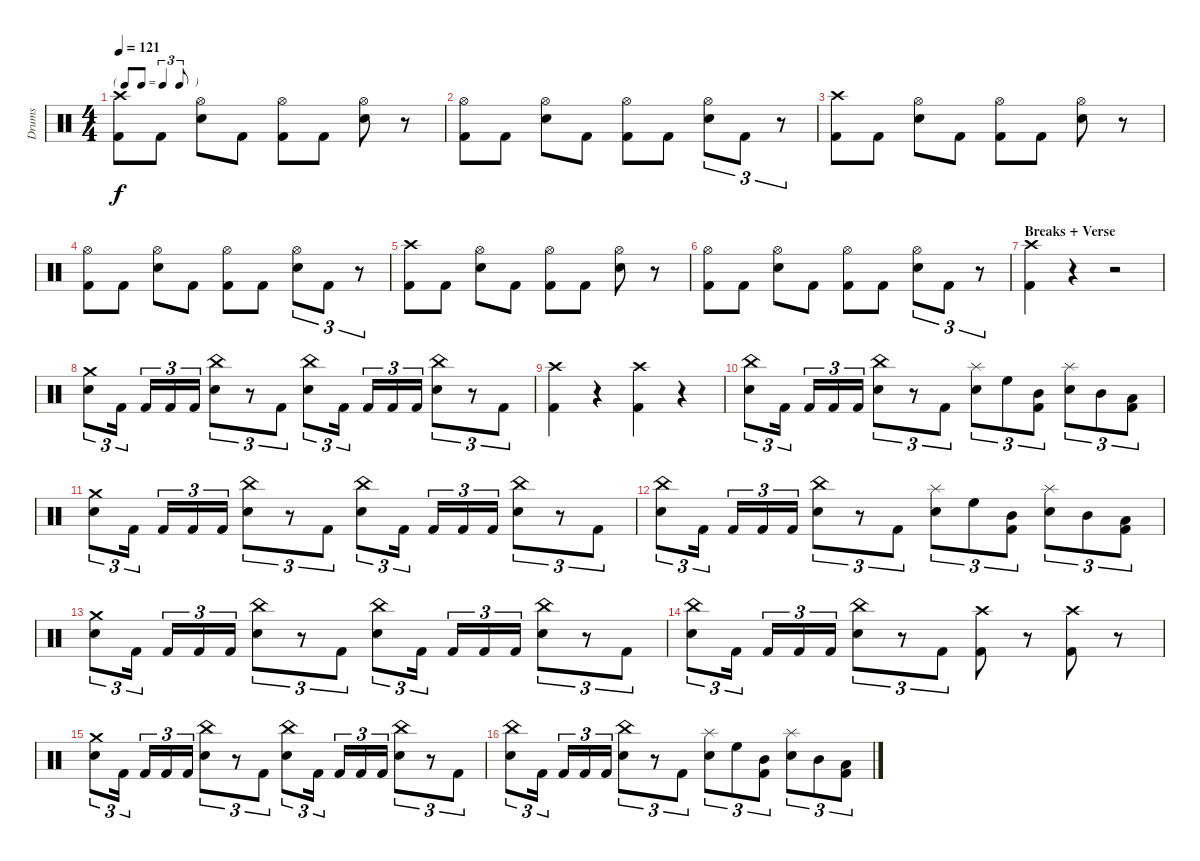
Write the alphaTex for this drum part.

\track ("Drums" "Drums") {instrument percussion}
\staff {score}
\articulation defaults
\ts (4 4)
\tf triplet8th
\tempo 121
\clef neutral
\ks c
("Crash high (hit)" "Kick (hit) 2").8{dy f} "Kick (hit) 2".8 ("Hi-Hat (open)" "Electric Snare (hit)").8 "Kick (hit) 2".8 ("Hi-Hat (open)" "Kick (hit) 2").8 "Kick (hit) 2".8 ("Hi-Hat (open)" "Electric Snare (hit)").8 r.8 |
("Hi-Hat (open)" "Kick (hit) 2").8 "Kick (hit) 2".8 ("Hi-Hat (open)" "Electric Snare (hit)").8 "Kick (hit) 2".8 ("Hi-Hat (open)" "Kick (hit) 2").8 "Kick (hit) 2".8 ("Hi-Hat (open)" "Electric Snare (hit)").8{tu (3 2)} "Kick (hit) 2".8{tu (3 2)} r.8{tu (3 2)} |
("Crash high (hit)" "Kick (hit) 2").8 "Kick (hit) 2".8 ("Hi-Hat (open)" "Electric Snare (hit)").8 "Kick (hit) 2".8 ("Hi-Hat (open)" "Kick (hit) 2").8 "Kick (hit) 2".8 ("Hi-Hat (open)" "Electric Snare (hit)").8 r.8 |
("Hi-Hat (open)" "Kick (hit) 2").8 "Kick (hit) 2".8 ("Hi-Hat (open)" "Electric Snare (hit)").8 "Kick (hit) 2".8 ("Hi-Hat (open)" "Kick (hit) 2").8 "Kick (hit) 2".8 ("Hi-Hat (open)" "Electric Snare (hit)").8{tu (3 2)} "Kick (hit) 2".8{tu (3 2)} r.8{tu (3 2)} |
("Crash high (hit)" "Kick (hit) 2").8 "Kick (hit) 2".8 ("Hi-Hat (open)" "Electric Snare (hit)").8 "Kick (hit) 2".8 ("Hi-Hat (open)" "Kick (hit) 2").8 "Kick (hit) 2".8 ("Hi-Hat (open)" "Electric Snare (hit)").8 r.8 |
("Hi-Hat (open)" "Kick (hit) 2").8 "Kick (hit) 2".8 ("Hi-Hat (open)" "Electric Snare (hit)").8 "Kick (hit) 2".8 ("Hi-Hat (open)" "Kick (hit) 2").8 "Kick (hit) 2".8 ("Hi-Hat (open)" "Electric Snare (hit)").8{tu (3 2)} "Kick (hit) 2".8{tu (3 2)} r.8{tu (3 2)} |
\section ("" "Breaks + Verse")
("Crash high (hit)" "Kick (hit) 2").4 r.4{volume 0} r.2 |
("Crash medium (hit)" "Electric Snare (hit)").8{tu (3 2) volume 15} "Kick (hit) 2".16{tu (3 2)} "Kick (hit) 2".16{tu (3 2)} "Kick (hit) 2".16{tu (3 2)} "Kick (hit) 2".16{tu (3 2)} ("China (hit)" "Electric Snare (hit)").8{tu (3 2)} r.8{tu (3 2)} "Kick (hit) 2".8{tu (3 2)} ("China (hit)" "Electric Snare (hit)").8{tu (3 2)} "Kick (hit) 2".16{tu (3 2)} "Kick (hit) 2".16{tu (3 2)} "Kick (hit) 2".16{tu (3 2)} "Kick (hit) 2".16{tu (3 2)} ("China (hit)" "Electric Snare (hit)").8{tu (3 2)} r.8{tu (3 2)} "Kick (hit) 2".8{tu (3 2)} |
("Crash high (hit)" "Kick (hit) 2").4 r.4{volume 0} ("Crash high (hit)" "Kick (hit) 2").4{volume 15} r.4{volume 0} |
("China (hit)" "Electric Snare (hit)").8{tu (3 2) volume 15} "Kick (hit) 2".16{tu (3 2)} "Kick (hit) 2".16{tu (3 2)} "Kick (hit) 2".16{tu (3 2)} "Kick (hit) 2".16{tu (3 2)} ("China (hit)" "Electric Snare (hit)").8{tu (3 2)} r.8{tu (3 2)} "Kick (hit) 2".8{tu (3 2)} ("Splash (hit)" "Electric Snare (hit)").8{tu (3 2)} "High Floor Tom (hit)".8{tu (3 2)} ("Mid Tom (hit)" "Kick (hit) 2").8{tu (3 2)} ("Splash (hit)" "Electric Snare (hit)").8{tu (3 2)} "Mid Tom (hit)".8{tu (3 2)} ("Low Tom (hit)" "Kick (hit) 2").8{tu (3 2)} |
("Crash medium (hit)" "Electric Snare (hit)").8{tu (3 2)} "Kick (hit) 2".16{tu (3 2)} "Kick (hit) 2".16{tu (3 2)} "Kick (hit) 2".16{tu (3 2)} "Kick (hit) 2".16{tu (3 2)} ("China (hit)" "Electric Snare (hit)").8{tu (3 2)} r.8{tu (3 2)} "Kick (hit) 2".8{tu (3 2)} ("China (hit)" "Electric Snare (hit)").8{tu (3 2)} "Kick (hit) 2".16{tu (3 2)} "Kick (hit) 2".16{tu (3 2)} "Kick (hit) 2".16{tu (3 2)} "Kick (hit) 2".16{tu (3 2)} ("China (hit)" "Electric Snare (hit)").8{tu (3 2)} r.8{tu (3 2)} "Kick (hit) 2".8{tu (3 2)} |
("China (hit)" "Electric Snare (hit)").8{tu (3 2)} "Kick (hit) 2".16{tu (3 2)} "Kick (hit) 2".16{tu (3 2)} "Kick (hit) 2".16{tu (3 2)} "Kick (hit) 2".16{tu (3 2)} ("China (hit)" "Electric Snare (hit)").8{tu (3 2)} r.8{tu (3 2)} "Kick (hit) 2".8{tu (3 2)} ("Splash (hit)" "Electric Snare (hit)").8{tu (3 2)} "High Floor Tom (hit)".8{tu (3 2)} ("Mid Tom (hit)" "Kick (hit) 2").8{tu (3 2)} ("Splash (hit)" "Electric Snare (hit)").8{tu (3 2)} "Mid Tom (hit)".8{tu (3 2)} ("Low Tom (hit)" "Kick (hit) 2").8{tu (3 2)} |
("Crash medium (hit)" "Electric Snare (hit)").8{tu (3 2)} "Kick (hit) 2".16{tu (3 2)} "Kick (hit) 2".16{tu (3 2)} "Kick (hit) 2".16{tu (3 2)} "Kick (hit) 2".16{tu (3 2)} ("China (hit)" "Electric Snare (hit)").8{tu (3 2)} r.8{tu (3 2)} "Kick (hit) 2".8{tu (3 2)} ("China (hit)" "Electric Snare (hit)").8{tu (3 2)} "Kick (hit) 2".16{tu (3 2)} "Kick (hit) 2".16{tu (3 2)} "Kick (hit) 2".16{tu (3 2)} "Kick (hit) 2".16{tu (3 2)} ("China (hit)" "Electric Snare (hit)").8{tu (3 2)} r.8{tu (3 2)} "Kick (hit) 2".8{tu (3 2)} |
("China (hit)" "Electric Snare (hit)").8{tu (3 2)} "Kick (hit) 2".16{tu (3 2)} "Kick (hit) 2".16{tu (3 2)} "Kick (hit) 2".16{tu (3 2)} "Kick (hit) 2".16{tu (3 2)} ("China (hit)" "Electric Snare (hit)").8{tu (3 2)} r.8{tu (3 2)} "Kick (hit) 2".8{tu (3 2)} ("Crash high (hit)" "Kick (hit) 2").8 r.8{volume 0} ("Crash high (hit)" "Kick (hit) 2").8{volume 15} r.8{volume 0} |
("Crash medium (hit)" "Electric Snare (hit)").8{tu (3 2) volume 15} "Kick (hit) 2".16{tu (3 2)} "Kick (hit) 2".16{tu (3 2)} "Kick (hit) 2".16{tu (3 2)} "Kick (hit) 2".16{tu (3 2)} ("China (hit)" "Electric Snare (hit)").8{tu (3 2)} r.8{tu (3 2)} "Kick (hit) 2".8{tu (3 2)} ("China (hit)" "Electric Snare (hit)").8{tu (3 2)} "Kick (hit) 2".16{tu (3 2)} "Kick (hit) 2".16{tu (3 2)} "Kick (hit) 2".16{tu (3 2)} "Kick (hit) 2".16{tu (3 2)} ("China (hit)" "Electric Snare (hit)").8{tu (3 2)} r.8{tu (3 2)} "Kick (hit) 2".8{tu (3 2)} |
("China (hit)" "Electric Snare (hit)").8{tu (3 2)} "Kick (hit) 2".16{tu (3 2)} "Kick (hit) 2".16{tu (3 2)} "Kick (hit) 2".16{tu (3 2)} "Kick (hit) 2".16{tu (3 2)} ("China (hit)" "Electric Snare (hit)").8{tu (3 2)} r.8{tu (3 2)} "Kick (hit) 2".8{tu (3 2)} ("Splash (hit)" "Electric Snare (hit)").8{tu (3 2)} "High Floor Tom (hit)".8{tu (3 2)} ("Mid Tom (hit)" "Kick (hit) 2").8{tu (3 2)} ("Splash (hit)" "Electric Snare (hit)").8{tu (3 2)} "Mid Tom (hit)".8{tu (3 2)} ("Low Tom (hit)" "Kick (hit) 2").8{tu (3 2)}
